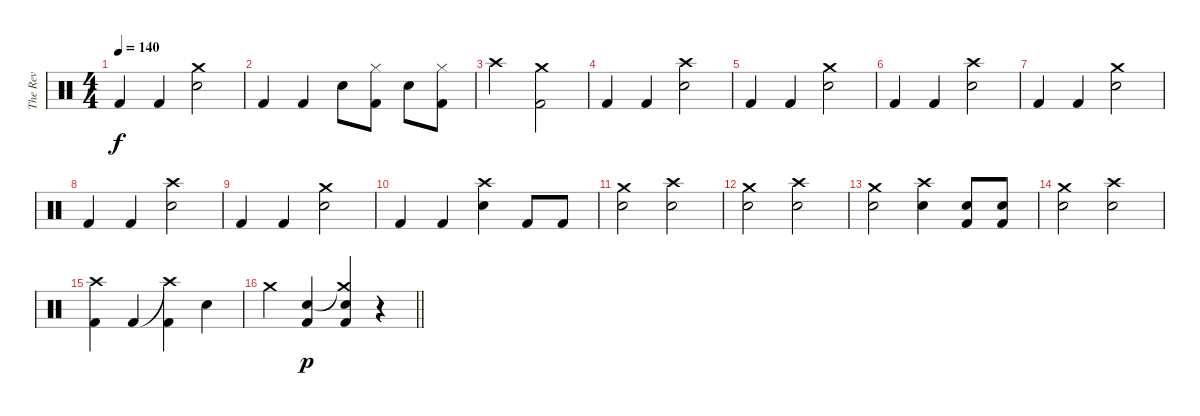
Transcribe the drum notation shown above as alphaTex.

\track ("The Rev" "The Rev") {instrument percussion}
\staff {score}
\articulation defaults
\ts (4 4)
\tempo 140
\clef neutral
\ks c "Kick (hit) 2".4{dy f} "Kick (hit) 2".4
("Crash medium (hit)" "Snare (hit) 2").2 |
"Kick (hit) 2".4 "Kick (hit) 2".4 "Snare (hit) 2".8 ("Hi-Hat (closed)" "Kick (hit) 2").8 "Snare (hit) 2".8 ("Hi-Hat (closed)" "Kick (hit) 2").8 |
"Crash high (hit)".2 ("Crash medium (hit)" "Kick (hit) 2").2 |
"Kick (hit) 2".4 "Kick (hit) 2".4 ("Crash high (hit)" "Snare (hit) 2").2 |
"Kick (hit) 2".4 "Kick (hit) 2".4 ("Crash medium (hit)" "Snare (hit) 2").2 |
"Kick (hit) 2".4 "Kick (hit) 2".4 ("Crash high (hit)" "Snare (hit) 2").2 |
"Kick (hit) 2".4 "Kick (hit) 2".4 ("Crash medium (hit)" "Snare (hit) 2").2 |
"Kick (hit) 2".4 "Kick (hit) 2".4 ("Crash high (hit)" "Snare (hit) 2").2 |
"Kick (hit) 2".4 "Kick (hit) 2".4 ("Crash medium (hit)" "Snare (hit) 2").2 |
"Kick (hit) 2".4 "Kick (hit) 2".4 ("Crash high (hit)" "Snare (hit) 2").4 "Kick (hit) 2".8 "Kick (hit) 2".8 |
("Crash medium (hit)" "Snare (hit) 2").2 ("Crash high (hit)" "Snare (hit) 2").2 |
("Crash medium (hit)" "Snare (hit) 2").2 ("Crash high (hit)" "Snare (hit) 2").2 |
("Crash medium (hit)" "Snare (hit) 2").2 ("Crash high (hit)" "Snare (hit) 2").4 ("Snare (hit) 2" "Kick (hit) 2").8 ("Snare (hit) 2" "Kick (hit) 2").8 |
("Crash medium (hit)" "Snare (hit) 2").2 ("Crash high (hit)" "Snare (hit) 2").2 |
("Crash high (hit)" "Kick (hit) 2").4 "Kick (hit) 2".4 ("Crash high (hit)"{t} "Kick (hit) 2").4 "Snare (hit) 2".4 |
\barLineRight lightlight "Crash medium (hit)".4
("Snare (hit) 2" "Kick (hit) 2").4{dy p} ("Crash medium (hit)"{t} "Snare (hit) 2" "Kick (hit) 2").4 r.4
